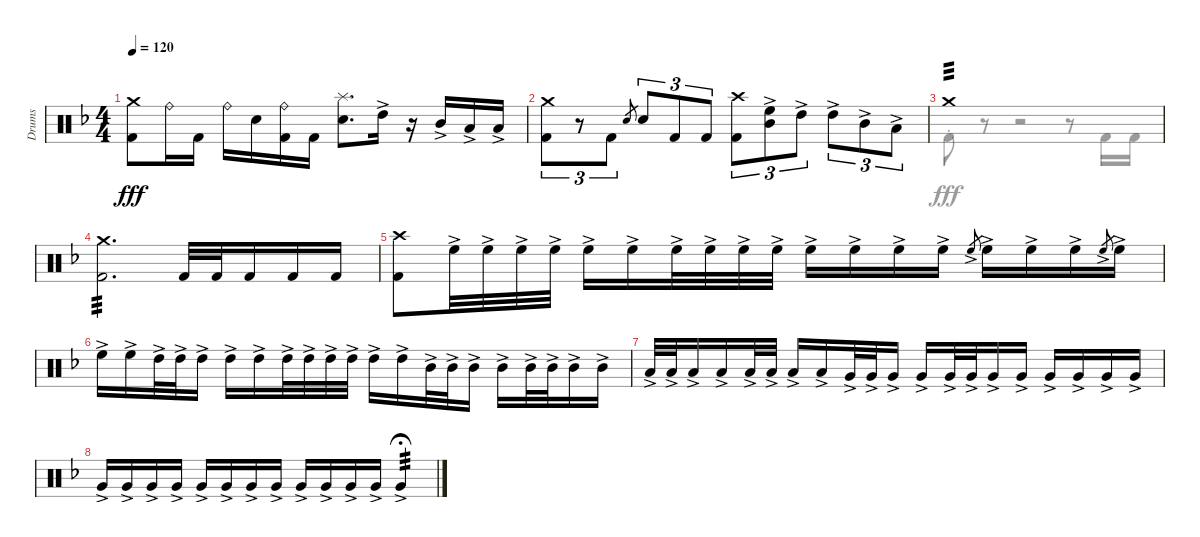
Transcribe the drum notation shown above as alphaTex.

\defaultSystemsLayout 4
\bracketExtendMode groupsimilarinstruments
\otherSystemsTrackNameOrientation horizontal
\track ("Drumkit" "Drums") {multiBarRest instrument percussion}
\staff {score}
\articulation defaults
\voice
\ts (4 4)
\tempo 120
\clef neutral
\ks f
("Crash medium (hit)"{acc forcenatural} "Kick (hit) 2"{acc forcenatural}).8{dy fff} "Ride (bell)"{acc forcenatural}.16 "Kick (hit) 2"{acc forcenatural}.16 "Ride (bell)"{acc forcenatural}.16 "Snare (hit) 2"{acc forcenatural}.16 ("Kick (hit) 2"{acc forcenatural} "Ride (bell)"{acc forcenatural}).16 "Kick (hit) 2"{acc forcenatural}.16 ("Snare (hit) 2"{acc forcenatural} "Splash (hit)"{acc forcenatural}).8{d} "High Tom (hit)"{ac acc forcenatural}.16 r.16 "Mid Tom (hit)"{ac acc forcenatural}.16 "Low Tom (hit)"{ac acc forcenatural}.16 "Low Tom (hit)"{ac acc forcenatural}.16 |
("Crash medium (hit)"{acc forcenatural} "Kick (hit) 2"{acc forcenatural}).8{tu (3 2)} r.8{tu (3 2)} "Kick (hit) 2"{acc forcenatural}.8{tu (3 2)} "Snare (hit) 2"{acc forcenatural}.8{tu (3 2) gr} "Snare (hit) 2"{acc forcenatural}.8{tu (3 2)} "Kick (hit) 2"{acc forcenatural}.8{tu (3 2)} "Kick (hit) 2"{acc forcenatural}.8{tu (3 2)} ("Crash high (hit)"{acc forcenatural} "Kick (hit) 2"{acc forcenatural}).8{tu (3 2)} ("Mid Tom (hit)"{ac acc forcenatural} "High Floor Tom (hit)"{ac acc forcenatural}).8{tu (3 2)} "High Tom (hit)"{ac acc forcenatural}.8{tu (3 2)} "High Tom (hit)"{ac acc forcenatural}.8{tu (3 2)} "Mid Tom (hit)"{ac acc forcenatural}.8{tu (3 2)} "Low Tom (hit)"{ac acc forcenatural}.8{tu (3 2)} |
"Crash medium (hit)"{acc forcenatural}.1{tp 3} |
("Kick (hit) 2"{acc forcenatural} "Crash medium (hit)"{acc forcenatural}).2{d tp 3} "Kick (hit) 2"{acc forcenatural}.32 "Kick (hit) 2"{acc forcenatural}.32 "Kick (hit) 2"{acc forcenatural}.16 "Kick (hit) 2"{acc forcenatural}.16 "Kick (hit) 2"{acc forcenatural}.16 |
("Kick (hit) 2"{acc forcenatural} "Crash high (hit)"{acc forcenatural}).8 "High Floor Tom (hit)"{ac acc forcenatural}.32 "High Floor Tom (hit)"{ac acc forcenatural}.32 "High Floor Tom (hit)"{ac acc forcenatural}.32 "High Floor Tom (hit)"{ac acc forcenatural}.32 "High Floor Tom (hit)"{ac acc forcenatural}.16 "High Floor Tom (hit)"{ac acc forcenatural}.16 "High Floor Tom (hit)"{ac acc forcenatural}.32 "High Floor Tom (hit)"{ac acc forcenatural}.32 "High Floor Tom (hit)"{ac acc forcenatural}.32 "High Floor Tom (hit)"{ac acc forcenatural}.32 "High Floor Tom (hit)"{ac acc forcenatural}.16 "High Floor Tom (hit)"{ac acc forcenatural}.16 "High Floor Tom (hit)"{ac acc forcenatural}.16 "High Floor Tom (hit)"{ac acc forcenatural}.16 "High Floor Tom (hit)"{ac acc forcenatural}.8{gr} "High Floor Tom (hit)"{ac acc forcenatural}.16 "High Floor Tom (hit)"{ac acc forcenatural}.16 "High Floor Tom (hit)"{ac acc forcenatural}.16 "High Floor Tom (hit)"{ac acc forcenatural}.8{gr} "High Floor Tom (hit)"{ac acc forcenatural}.16 |
"High Floor Tom (hit)"{ac acc forcenatural}.16 "High Floor Tom (hit)"{ac acc forcenatural}.16 "High Tom (hit)"{ac acc forcenatural}.32 "High Tom (hit)"{ac acc forcenatural}.32 "High Tom (hit)"{ac acc forcenatural}.16 "High Tom (hit)"{ac acc forcenatural}.16 "High Tom (hit)"{ac acc forcenatural}.16 "High Tom (hit)"{ac acc forcenatural}.32 "High Tom (hit)"{ac acc forcenatural}.32 "High Tom (hit)"{ac acc forcenatural}.32 "High Tom (hit)"{ac acc forcenatural}.32 "High Tom (hit)"{ac acc forcenatural}.16 "High Tom (hit)"{ac acc forcenatural}.16 "Mid Tom (hit)"{ac acc forcenatural}.32 "Mid Tom (hit)"{ac acc forcenatural}.32 "Mid Tom (hit)"{ac acc forcenatural}.16 "Mid Tom (hit)"{ac acc forcenatural}.16 "Mid Tom (hit)"{ac acc forcenatural}.32 "Mid Tom (hit)"{ac acc forcenatural}.32 "Mid Tom (hit)"{ac acc forcenatural}.16 "Mid Tom (hit)"{ac acc forcenatural}.16 |
"Low Tom (hit)"{ac acc forcenatural}.32 "Low Tom (hit)"{ac acc forcenatural}.32 "Low Tom (hit)"{ac acc forcenatural}.16 "Low Tom (hit)"{ac acc forcenatural}.16 "Low Tom (hit)"{ac acc forcenatural}.32 "Low Tom (hit)"{ac acc forcenatural}.32 "Low Tom (hit)"{ac acc forcenatural}.16 "Low Tom (hit)"{ac acc forcenatural}.16 "Very Low Tom (hit)"{ac acc forcenatural}.32 "Very Low Tom (hit)"{ac acc forcenatural}.32 "Very Low Tom (hit)"{ac acc forcenatural}.16 "Very Low Tom (hit)"{ac acc forcenatural}.16 "Very Low Tom (hit)"{ac acc forcenatural}.32 "Very Low Tom (hit)"{ac acc forcenatural}.32 "Very Low Tom (hit)"{ac acc forcenatural}.16 "Very Low Tom (hit)"{ac acc forcenatural}.16 "Very Low Tom (hit)"{ac acc forcenatural}.16 "Very Low Tom (hit)"{ac acc forcenatural}.16 "Very Low Tom (hit)"{ac acc forcenatural}.16 "Very Low Tom (hit)"{ac acc forcenatural}.16 |
"Very Low Tom (hit)"{ac acc forcenatural}.16 "Very Low Tom (hit)"{ac acc forcenatural}.16 "Very Low Tom (hit)"{ac acc forcenatural}.16 "Very Low Tom (hit)"{ac acc forcenatural}.16 "Very Low Tom (hit)"{ac acc forcenatural}.16 "Very Low Tom (hit)"{ac acc forcenatural}.16 "Very Low Tom (hit)"{ac acc forcenatural}.16 "Very Low Tom (hit)"{ac acc forcenatural}.16 "Very Low Tom (hit)"{ac acc forcenatural}.16 "Very Low Tom (hit)"{ac acc forcenatural}.16 "Very Low Tom (hit)"{ac acc forcenatural}.16 "Very Low Tom (hit)"{ac acc forcenatural}.16 "Very Low Tom (hit)"{ac acc forcenatural}.4{tp 3 fermata (medium 0.8)}
\voice
\clef neutral
\ottava regular
\simile none
\ks f
|
|
"Kick (hit) 2"{st acc forcenatural}.8 r.8 r.2 r.8 "Kick (hit) 2"{acc forcenatural}.16 "Kick (hit) 2"{acc forcenatural}.16 |
|
|
|
|
